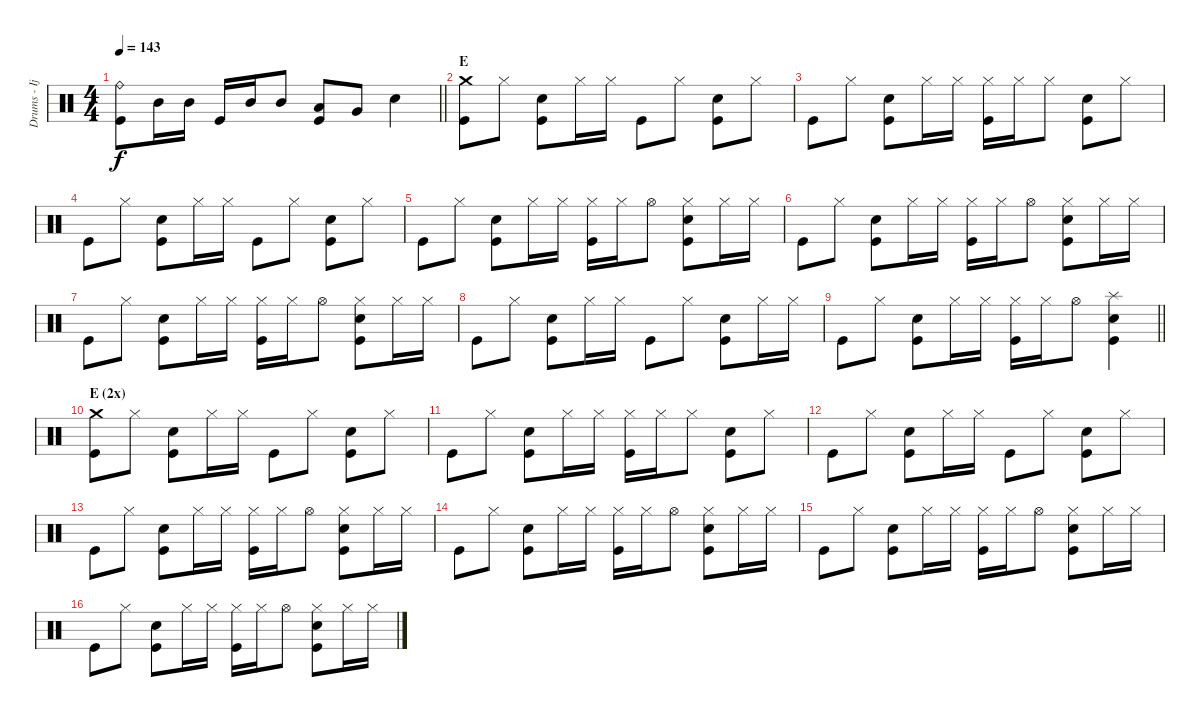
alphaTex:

\track ("Drums - Ijichi" "Drums - Ij") {instrument percussion}
\staff {score}
\articulation defaults
\ts (4 4)
\tempo 143
\clef neutral
\barLineRight lightlight
\ks c
("Ride (bell)" "Kick (hit)").8{dy f} "Mid Tom (hit)".16 "Mid Tom (hit)".16 "Kick (hit)".16 "Mid Tom (hit)".16 "Mid Tom (hit)".8 ("Low Tom (hit)" "Kick (hit)").8 "Very Low Tom (hit)".8 "Electric Snare (hit)".4 |
\section ("" "E")
("Crash medium (hit)" "Kick (hit)").8 "Hi-Hat (closed)".8 ("Electric Snare (hit)" "Kick (hit)").8 "Hi-Hat (closed)".16 "Hi-Hat (closed)".16 "Kick (hit)".8 "Hi-Hat (closed)".8 ("Electric Snare (hit)" "Kick (hit)").8 "Hi-Hat (closed)".8 |
"Kick (hit)".8 "Hi-Hat (closed)".8 ("Electric Snare (hit)" "Kick (hit)").8 "Hi-Hat (closed)".16 "Hi-Hat (closed)".16 ("Hi-Hat (closed)" "Kick (hit)").16 "Hi-Hat (closed)".16 "Hi-Hat (closed)".8 ("Electric Snare (hit)" "Kick (hit)").8 "Hi-Hat (closed)".8 |
"Kick (hit)".8 "Hi-Hat (closed)".8 ("Electric Snare (hit)" "Kick (hit)").8 "Hi-Hat (closed)".16 "Hi-Hat (closed)".16 "Kick (hit)".8 "Hi-Hat (closed)".8 ("Electric Snare (hit)" "Kick (hit)").8 "Hi-Hat (closed)".8 |
"Kick (hit)".8 "Hi-Hat (closed)".8 ("Electric Snare (hit)" "Kick (hit)").8 "Hi-Hat (closed)".16 "Hi-Hat (closed)".16 ("Hi-Hat (closed)" "Kick (hit)").16 "Hi-Hat (closed)".16 "Hi-Hat (open)".8 ("Hi-Hat (closed)" "Electric Snare (hit)" "Kick (hit)").8 "Hi-Hat (closed)".16 "Hi-Hat (closed)".16 |
"Kick (hit)".8 "Hi-Hat (closed)".8 ("Electric Snare (hit)" "Kick (hit)").8 "Hi-Hat (closed)".16 "Hi-Hat (closed)".16 ("Hi-Hat (closed)" "Kick (hit)").16 "Hi-Hat (closed)".16 "Hi-Hat (open)".8 ("Hi-Hat (closed)" "Electric Snare (hit)" "Kick (hit)").8 "Hi-Hat (closed)".16 "Hi-Hat (closed)".16 |
"Kick (hit)".8 "Hi-Hat (closed)".8 ("Electric Snare (hit)" "Kick (hit)").8 "Hi-Hat (closed)".16 "Hi-Hat (closed)".16 ("Hi-Hat (closed)" "Kick (hit)").16 "Hi-Hat (closed)".16 "Hi-Hat (open)".8 ("Hi-Hat (closed)" "Electric Snare (hit)" "Kick (hit)").8 "Hi-Hat (closed)".16 "Hi-Hat (closed)".16 |
"Kick (hit)".8 "Hi-Hat (closed)".8 ("Electric Snare (hit)" "Kick (hit)").8 "Hi-Hat (closed)".16 "Hi-Hat (closed)".16 "Kick (hit)".8 "Hi-Hat (closed)".8 ("Electric Snare (hit)" "Kick (hit)").8 "Hi-Hat (closed)".16 "Hi-Hat (closed)".16 |
\barLineRight lightlight "Kick (hit)".8 "Hi-Hat (closed)".8
("Electric Snare (hit)" "Kick (hit)").8 "Hi-Hat (closed)".16 "Hi-Hat (closed)".16 ("Hi-Hat (closed)" "Kick (hit)").16 "Hi-Hat (closed)".16 "Hi-Hat (open)".8 ("Splash (hit)" "Electric Snare (hit)" "Kick (hit)").4 |
\section ("" "E (2x)")
("Crash medium (hit)" "Kick (hit)").8 "Hi-Hat (closed)".8 ("Electric Snare (hit)" "Kick (hit)").8 "Hi-Hat (closed)".16 "Hi-Hat (closed)".16 "Kick (hit)".8 "Hi-Hat (closed)".8 ("Electric Snare (hit)" "Kick (hit)").8 "Hi-Hat (closed)".8 |
"Kick (hit)".8 "Hi-Hat (closed)".8 ("Electric Snare (hit)" "Kick (hit)").8 "Hi-Hat (closed)".16 "Hi-Hat (closed)".16 ("Hi-Hat (closed)" "Kick (hit)").16 "Hi-Hat (closed)".16 "Hi-Hat (closed)".8 ("Electric Snare (hit)" "Kick (hit)").8 "Hi-Hat (closed)".8 |
"Kick (hit)".8 "Hi-Hat (closed)".8 ("Electric Snare (hit)" "Kick (hit)").8 "Hi-Hat (closed)".16 "Hi-Hat (closed)".16 "Kick (hit)".8 "Hi-Hat (closed)".8 ("Electric Snare (hit)" "Kick (hit)").8 "Hi-Hat (closed)".8 |
"Kick (hit)".8 "Hi-Hat (closed)".8 ("Electric Snare (hit)" "Kick (hit)").8 "Hi-Hat (closed)".16 "Hi-Hat (closed)".16 ("Hi-Hat (closed)" "Kick (hit)").16 "Hi-Hat (closed)".16 "Hi-Hat (open)".8 ("Hi-Hat (closed)" "Electric Snare (hit)" "Kick (hit)").8 "Hi-Hat (closed)".16 "Hi-Hat (closed)".16 |
"Kick (hit)".8 "Hi-Hat (closed)".8 ("Electric Snare (hit)" "Kick (hit)").8 "Hi-Hat (closed)".16 "Hi-Hat (closed)".16 ("Hi-Hat (closed)" "Kick (hit)").16 "Hi-Hat (closed)".16 "Hi-Hat (open)".8 ("Hi-Hat (closed)" "Electric Snare (hit)" "Kick (hit)").8 "Hi-Hat (closed)".16 "Hi-Hat (closed)".16 |
"Kick (hit)".8 "Hi-Hat (closed)".8 ("Electric Snare (hit)" "Kick (hit)").8 "Hi-Hat (closed)".16 "Hi-Hat (closed)".16 ("Hi-Hat (closed)" "Kick (hit)").16 "Hi-Hat (closed)".16 "Hi-Hat (open)".8 ("Hi-Hat (closed)" "Electric Snare (hit)" "Kick (hit)").8 "Hi-Hat (closed)".16 "Hi-Hat (closed)".16 |
"Kick (hit)".8 "Hi-Hat (closed)".8 ("Electric Snare (hit)" "Kick (hit)").8 "Hi-Hat (closed)".16 "Hi-Hat (closed)".16 ("Hi-Hat (closed)" "Kick (hit)").16 "Hi-Hat (closed)".16 "Hi-Hat (open)".8 ("Hi-Hat (closed)" "Electric Snare (hit)" "Kick (hit)").8 "Hi-Hat (closed)".16 "Hi-Hat (closed)".16
